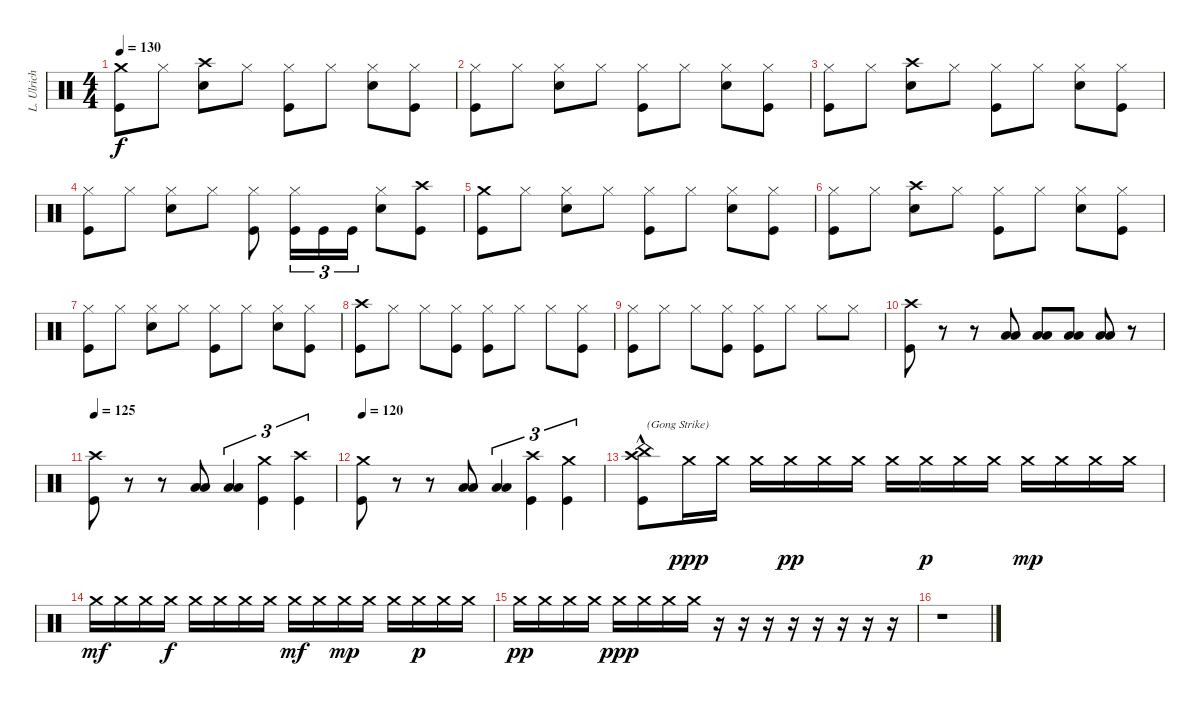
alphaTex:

\track ("L. Ulrich" "L. Ulrich") {instrument percussion}
\staff {score}
\articulation defaults
\ts (4 4)
\tempo 130
\clef neutral
\ks c
("Crash medium (hit)" "Kick (hit)").8{dy f} "Hi-Hat (closed)".8 ("Crash high (hit)" "Snare (hit) 2").8 "Hi-Hat (closed)".8 ("Hi-Hat (closed)" "Kick (hit)").8 "Hi-Hat (closed)".8 ("Hi-Hat (closed)" "Snare (hit) 2").8 ("Hi-Hat (closed)" "Kick (hit)").8 |
("Hi-Hat (closed)" "Kick (hit)").8 "Hi-Hat (closed)".8 ("Hi-Hat (closed)" "Snare (hit) 2").8 "Hi-Hat (closed)".8 ("Hi-Hat (closed)" "Kick (hit)").8 "Hi-Hat (closed)".8 ("Hi-Hat (closed)" "Snare (hit) 2").8 ("Hi-Hat (closed)" "Kick (hit)").8 |
("Hi-Hat (closed)" "Kick (hit)").8 "Hi-Hat (closed)".8 ("Crash high (hit)" "Snare (hit) 2").8 "Hi-Hat (closed)".8 ("Hi-Hat (closed)" "Kick (hit)").8 "Hi-Hat (closed)".8 ("Hi-Hat (closed)" "Snare (hit) 2").8 ("Hi-Hat (closed)" "Kick (hit)").8 |
("Hi-Hat (closed)" "Kick (hit)").8 "Hi-Hat (closed)".8 ("Hi-Hat (closed)" "Snare (hit) 2").8 "Hi-Hat (closed)".8 ("Hi-Hat (closed)" "Kick (hit)").8 ("Hi-Hat (closed)" "Kick (hit)").16{tu (3 2)} "Kick (hit)".16{tu (3 2)} "Kick (hit)".16{tu (3 2)} ("Hi-Hat (closed)" "Snare (hit) 2").8 ("Crash high (hit)" "Kick (hit)").8 |
("Crash medium (hit)" "Kick (hit)").8 "Hi-Hat (closed)".8 ("Hi-Hat (closed)" "Snare (hit) 2").8 "Hi-Hat (closed)".8 ("Hi-Hat (closed)" "Kick (hit)").8 "Hi-Hat (closed)".8 ("Hi-Hat (closed)" "Snare (hit) 2").8 ("Hi-Hat (closed)" "Kick (hit)").8 |
("Hi-Hat (closed)" "Kick (hit)").8 "Hi-Hat (closed)".8 ("Crash high (hit)" "Snare (hit) 2").8 "Hi-Hat (closed)".8 ("Hi-Hat (closed)" "Kick (hit)").8 "Hi-Hat (closed)".8 ("Hi-Hat (closed)" "Snare (hit) 2").8 ("Hi-Hat (closed)" "Kick (hit)").8 |
("Hi-Hat (closed)" "Kick (hit)").8 "Hi-Hat (closed)".8 ("Hi-Hat (closed)" "Snare (hit) 2").8 "Hi-Hat (closed)".8 ("Hi-Hat (closed)" "Kick (hit)").8 "Hi-Hat (closed)".8 ("Hi-Hat (closed)" "Snare (hit) 2").8 ("Hi-Hat (closed)" "Kick (hit)").8 |
("Crash high (hit)" "Kick (hit)").8 "Hi-Hat (closed)".8 "Hi-Hat (closed)".8 ("Hi-Hat (closed)" "Kick (hit)").8 ("Hi-Hat (closed)" "Kick (hit)").8 "Hi-Hat (closed)".8 "Hi-Hat (closed)".8 ("Hi-Hat (closed)" "Kick (hit)").8 |
("Hi-Hat (closed)" "Kick (hit)").8 "Hi-Hat (closed)".8 "Hi-Hat (closed)".8 ("Hi-Hat (closed)" "Kick (hit)").8 ("Hi-Hat (closed)" "Kick (hit)").8 "Hi-Hat (closed)".8 "Hi-Hat (closed)".8 "Hi-Hat (closed)".8 |
("Crash high (hit)" "Kick (hit)").8 r.8 r.8 ("Low Tom (hit)" "Low Floor Tom (hit)").8 ("Low Tom (hit)" "Low Floor Tom (hit)").8 ("Low Tom (hit)" "Low Floor Tom (hit)").8 ("Low Tom (hit)" "Low Floor Tom (hit)").8 r.8 |
\tempo 125
("Crash high (hit)" "Kick (hit)").8 r.8 r.8 ("Low Tom (hit)" "Low Floor Tom (hit)").8 ("Low Tom (hit)" "Low Floor Tom (hit)").4{tu (3 2)} ("Crash medium (hit)" "Kick (hit)").4{tu (3 2)} ("Crash high (hit)" "Kick (hit)").4{tu (3 2)} |
\tempo 120
("Crash medium (hit)" "Kick (hit)").8 r.8 r.8 ("Low Tom (hit)" "Low Floor Tom (hit)").8 ("Low Tom (hit)" "Low Floor Tom (hit)").4{tu (3 2)} ("Crash high (hit)" "Kick (hit)").4{tu (3 2)} ("Crash medium (hit)" "Kick (hit)").4{tu (3 2)} |
("China (hit)"{hac} "Crash high (hit)" "Kick (hit)").8{txt "(Gong Strike)"} "Crash medium (hit)".16{dy ppp} "Crash medium (hit)".16 "Crash medium (hit)".16 "Crash medium (hit)".16{dy pp} "Crash medium (hit)".16 "Crash medium (hit)".16 "Crash medium (hit)".16 "Crash medium (hit)".16{dy p} "Crash medium (hit)".16 "Crash medium (hit)".16 "Crash medium (hit)".16{dy mp} "Crash medium (hit)".16 "Crash medium (hit)".16 "Crash medium (hit)".16 |
"Crash medium (hit)".16{dy mf} "Crash medium (hit)".16 "Crash medium (hit)".16 "Crash medium (hit)".16{dy f} "Crash medium (hit)".16 "Crash medium (hit)".16 "Crash medium (hit)".16 "Crash medium (hit)".16 "Crash medium (hit)".16{dy mf} "Crash medium (hit)".16 "Crash medium (hit)".16{dy mp} "Crash medium (hit)".16 "Crash medium (hit)".16 "Crash medium (hit)".16{dy p} "Crash medium (hit)".16 "Crash medium (hit)".16 |
"Crash medium (hit)".16{dy pp} "Crash medium (hit)".16 "Crash medium (hit)".16 "Crash medium (hit)".16 "Crash medium (hit)".16{dy ppp} "Crash medium (hit)".16 "Crash medium (hit)".16 "Crash medium (hit)".16 r.16 r.16 r.16 r.16 r.16 r.16 r.16 r.16 |
r.1
